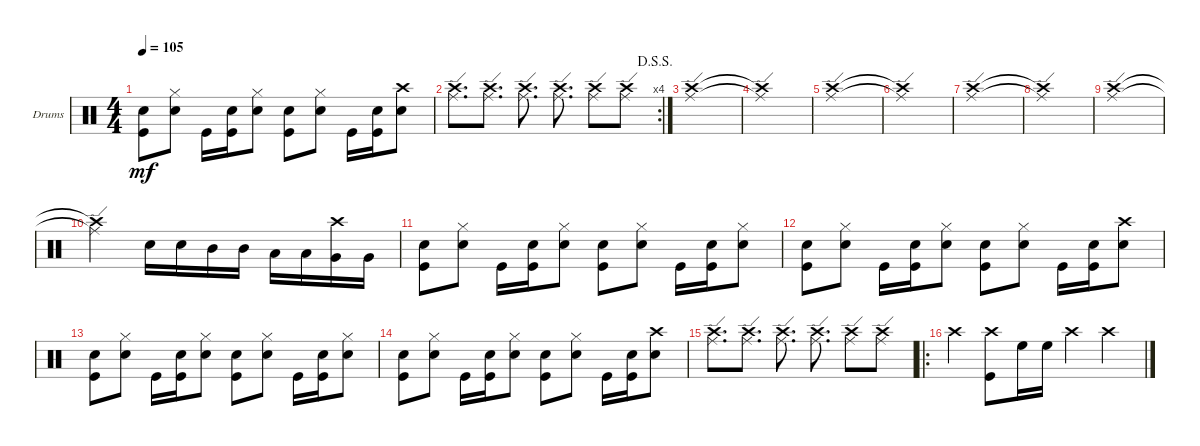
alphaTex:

\defaultSystemsLayout 4
\bracketExtendMode groupsimilarinstruments
\firstSystemTrackNameOrientation horizontal
\otherSystemsTrackNameOrientation horizontal
\track ("Drums" "Drums") {instrument percussion}
\staff {score}
\articulation defaults
\ts (4 4)
\tempo 105
\clef neutral
\ks c
("Kick (hit)" "Snare (hit) 2").8{dy mf} ("Snare (hit) 2" "Hi-Hat (closed)").8 "Kick (hit)".16 ("Snare (hit) 2" "Kick (hit)").16 ("Snare (hit) 2" "Hi-Hat (closed)").8 ("Snare (hit) 2" "Kick (hit)").8 ("Snare (hit) 2" "Hi-Hat (closed)").8 "Kick (hit)".16 ("Snare (hit) 2" "Kick (hit)").16 ("Snare (hit) 2" "Crash high (hit)").8 |
\rc 4
\jump dalsegnosegno
("Ride (edge)" "Crash high (hit)").8{d} ("Ride (edge)" "Crash high (hit)").8{d} ("Ride (edge)" "Crash high (hit)").8{d} ("Ride (edge)" "Crash high (hit)").8{d} ("Ride (edge)" "Crash high (hit)").8 ("Ride (edge)" "Crash high (hit)").8 |
("Ride (edge)" "Crash high (hit)").1 |
("Ride (edge)"{t} "Crash high (hit)"{t}).1 |
("Ride (edge)" "Crash high (hit)").1 |
("Ride (edge)"{t} "Crash high (hit)"{t}).1 |
("Ride (edge)" "Crash high (hit)").1 |
("Ride (edge)"{t} "Crash high (hit)"{t}).1 |
("Ride (edge)" "Crash high (hit)").1 |
("Ride (edge)"{t} "Crash high (hit)"{t}).2 "Snare (hit) 2".16 "Snare (hit) 2".16 "Mid Tom (hit)".16 "Mid Tom (hit)".16 "Low Tom (hit)".16 "Low Tom (hit)".16 ("Very Low Tom (hit)" "Crash high (hit)").16 "Very Low Tom (hit)".16 |
("Kick (hit)" "Snare (hit) 2").8 ("Snare (hit) 2" "Hi-Hat (closed)").8 "Kick (hit)".16 ("Snare (hit) 2" "Kick (hit)").16 ("Snare (hit) 2" "Hi-Hat (closed)").8 ("Snare (hit) 2" "Kick (hit)").8 ("Snare (hit) 2" "Hi-Hat (closed)").8 "Kick (hit)".16 ("Snare (hit) 2" "Kick (hit)").16 ("Snare (hit) 2" "Hi-Hat (closed)").8 |
("Kick (hit)" "Snare (hit) 2").8 ("Snare (hit) 2" "Hi-Hat (closed)").8 "Kick (hit)".16 ("Snare (hit) 2" "Kick (hit)").16 ("Snare (hit) 2" "Hi-Hat (closed)").8 ("Snare (hit) 2" "Kick (hit)").8 ("Snare (hit) 2" "Hi-Hat (closed)").8 "Kick (hit)".16 ("Snare (hit) 2" "Kick (hit)").16 ("Snare (hit) 2" "Crash high (hit)").8 |
("Kick (hit)" "Snare (hit) 2").8 ("Snare (hit) 2" "Hi-Hat (closed)").8 "Kick (hit)".16 ("Snare (hit) 2" "Kick (hit)").16 ("Snare (hit) 2" "Hi-Hat (closed)").8 ("Snare (hit) 2" "Kick (hit)").8 ("Snare (hit) 2" "Hi-Hat (closed)").8 "Kick (hit)".16 ("Snare (hit) 2" "Kick (hit)").16 ("Snare (hit) 2" "Hi-Hat (closed)").8 |
("Kick (hit)" "Snare (hit) 2").8 ("Snare (hit) 2" "Hi-Hat (closed)").8 "Kick (hit)".16 ("Snare (hit) 2" "Kick (hit)").16 ("Snare (hit) 2" "Hi-Hat (closed)").8 ("Snare (hit) 2" "Kick (hit)").8 ("Snare (hit) 2" "Hi-Hat (closed)").8 "Kick (hit)".16 ("Snare (hit) 2" "Kick (hit)").16 ("Snare (hit) 2" "Crash high (hit)").8 |
("Ride (edge)" "Crash high (hit)").8{d} ("Ride (edge)" "Crash high (hit)").8{d} ("Ride (edge)" "Crash high (hit)").8{d} ("Ride (edge)" "Crash high (hit)").8{d} ("Ride (edge)" "Crash high (hit)").8 ("Ride (edge)" "Crash high (hit)").8 |
\ro "Crash high (hit)".4
("Kick (hit)" "Crash high (hit)").8 "High Floor Tom (hit)".16 "High Floor Tom (hit)".16 "Crash high (hit)".4 "Crash high (hit)".4
